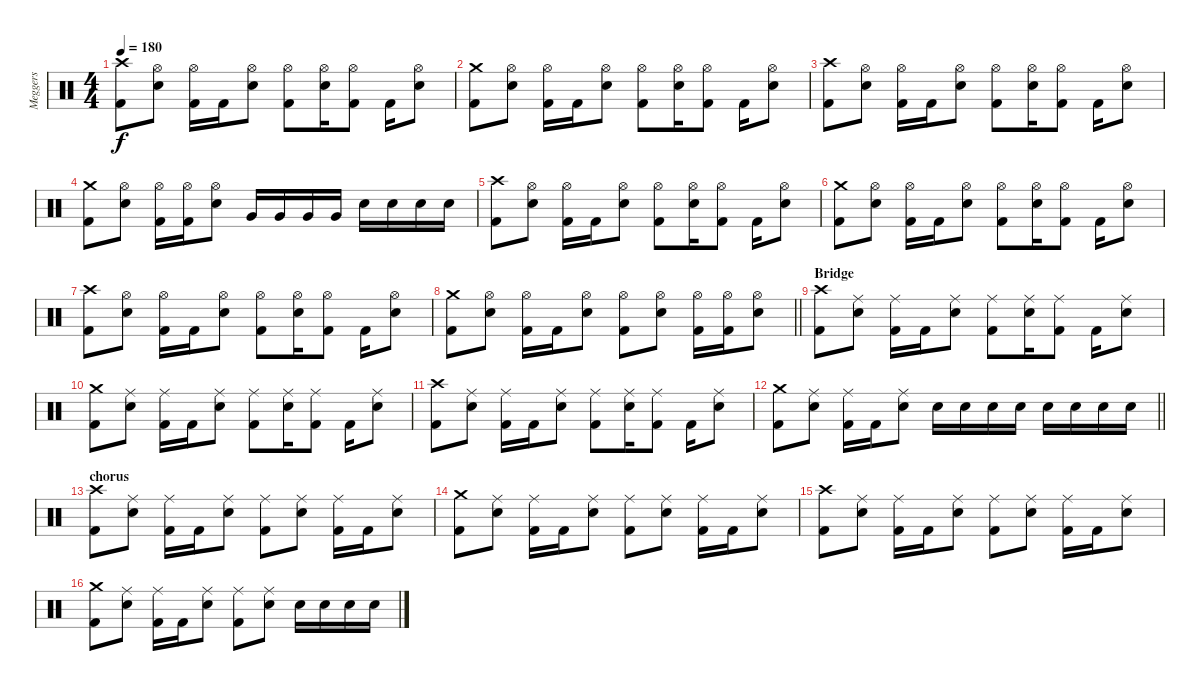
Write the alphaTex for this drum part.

\track ("Meggers" "Meggers") {instrument percussion}
\staff {score}
\articulation defaults
\ts (4 4)
\tempo 180
\clef neutral
\ks c
("Crash high (hit)" "Kick (hit) 2").8{dy f} ("Hi-Hat (open)" "Snare (hit) 2").8 ("Hi-Hat (open)" "Kick (hit) 2").16 "Kick (hit) 2".16 ("Hi-Hat (open)" "Snare (hit) 2").8 ("Hi-Hat (open)" "Kick (hit) 2").8 ("Hi-Hat (open)" "Snare (hit) 2").16 ("Hi-Hat (open)" "Kick (hit) 2").8 "Kick (hit) 2".16 ("Hi-Hat (open)" "Snare (hit) 2").8 |
("Crash medium (hit)" "Kick (hit) 2").8 ("Hi-Hat (open)" "Snare (hit) 2").8 ("Hi-Hat (open)" "Kick (hit) 2").16 "Kick (hit) 2".16 ("Hi-Hat (open)" "Snare (hit) 2").8 ("Hi-Hat (open)" "Kick (hit) 2").8 ("Hi-Hat (open)" "Snare (hit) 2").16 ("Hi-Hat (open)" "Kick (hit) 2").8 "Kick (hit) 2".16 ("Hi-Hat (open)" "Snare (hit) 2").8 |
("Crash high (hit)" "Kick (hit) 2").8 ("Hi-Hat (open)" "Snare (hit) 2").8 ("Hi-Hat (open)" "Kick (hit) 2").16 "Kick (hit) 2".16 ("Hi-Hat (open)" "Snare (hit) 2").8 ("Hi-Hat (open)" "Kick (hit) 2").8 ("Hi-Hat (open)" "Snare (hit) 2").16 ("Hi-Hat (open)" "Kick (hit) 2").8 "Kick (hit) 2".16 ("Hi-Hat (open)" "Snare (hit) 2").8 |
("Crash medium (hit)" "Kick (hit) 2").8 ("Hi-Hat (open)" "Snare (hit) 2").8 ("Hi-Hat (open)" "Kick (hit) 2").16 ("Hi-Hat (open)" "Kick (hit) 2").16 ("Hi-Hat (open)" "Snare (hit) 2").8 "Very Low Tom (hit)".16 "Very Low Tom (hit)".16 "Very Low Tom (hit)".16 "Very Low Tom (hit)".16 "Snare (hit) 2".16 "Snare (hit) 2".16 "Snare (hit) 2".16 "Snare (hit) 2".16 |
("Crash high (hit)" "Kick (hit) 2").8 ("Hi-Hat (open)" "Snare (hit) 2").8 ("Hi-Hat (open)" "Kick (hit) 2").16 "Kick (hit) 2".16 ("Hi-Hat (open)" "Snare (hit) 2").8 ("Hi-Hat (open)" "Kick (hit) 2").8 ("Hi-Hat (open)" "Snare (hit) 2").16 ("Hi-Hat (open)" "Kick (hit) 2").8 "Kick (hit) 2".16 ("Hi-Hat (open)" "Snare (hit) 2").8 |
("Crash medium (hit)" "Kick (hit) 2").8 ("Hi-Hat (open)" "Snare (hit) 2").8 ("Hi-Hat (open)" "Kick (hit) 2").16 "Kick (hit) 2".16 ("Hi-Hat (open)" "Snare (hit) 2").8 ("Hi-Hat (open)" "Kick (hit) 2").8 ("Hi-Hat (open)" "Snare (hit) 2").16 ("Hi-Hat (open)" "Kick (hit) 2").8 "Kick (hit) 2".16 ("Hi-Hat (open)" "Snare (hit) 2").8 |
("Crash high (hit)" "Kick (hit) 2").8 ("Hi-Hat (open)" "Snare (hit) 2").8 ("Hi-Hat (open)" "Kick (hit) 2").16 "Kick (hit) 2".16 ("Hi-Hat (open)" "Snare (hit) 2").8 ("Hi-Hat (open)" "Kick (hit) 2").8 ("Hi-Hat (open)" "Snare (hit) 2").16 ("Hi-Hat (open)" "Kick (hit) 2").8 "Kick (hit) 2".16 ("Hi-Hat (open)" "Snare (hit) 2").8 |
\barLineRight lightlight
("Crash medium (hit)" "Kick (hit) 2").8 ("Hi-Hat (open)" "Snare (hit) 2").8 ("Hi-Hat (open)" "Kick (hit) 2").16 "Kick (hit) 2".16 ("Hi-Hat (open)" "Snare (hit) 2").8 ("Hi-Hat (open)" "Kick (hit) 2").8 ("Hi-Hat (open)" "Snare (hit) 2").8 ("Hi-Hat (open)" "Kick (hit) 2").16 ("Hi-Hat (open)" "Kick (hit) 2").16 ("Hi-Hat (open)" "Snare (hit) 2").8 |
\section ("" "Bridge")
("Crash high (hit)" "Kick (hit) 2").8 ("Ride (middle)" "Snare (hit) 2").8 ("Ride (middle)" "Kick (hit) 2").16 "Kick (hit) 2".16 ("Ride (middle)" "Snare (hit) 2").8 ("Ride (middle)" "Kick (hit) 2").8 ("Ride (middle)" "Snare (hit) 2").16 ("Ride (middle)" "Kick (hit) 2").8 "Kick (hit) 2".16 ("Ride (middle)" "Snare (hit) 2").8 |
("Crash medium (hit)" "Kick (hit) 2").8 ("Ride (middle)" "Snare (hit) 2").8 ("Ride (middle)" "Kick (hit) 2").16 "Kick (hit) 2".16 ("Ride (middle)" "Snare (hit) 2").8 ("Ride (middle)" "Kick (hit) 2").8 ("Ride (middle)" "Snare (hit) 2").16 ("Ride (middle)" "Kick (hit) 2").8 "Kick (hit) 2".16 ("Ride (middle)" "Snare (hit) 2").8 |
("Crash high (hit)" "Kick (hit) 2").8 ("Ride (middle)" "Snare (hit) 2").8 ("Ride (middle)" "Kick (hit) 2").16 "Kick (hit) 2".16 ("Ride (middle)" "Snare (hit) 2").8 ("Ride (middle)" "Kick (hit) 2").8 ("Ride (middle)" "Snare (hit) 2").16 ("Ride (middle)" "Kick (hit) 2").8 "Kick (hit) 2".16 ("Ride (middle)" "Snare (hit) 2").8 |
\barLineRight lightlight
("Crash medium (hit)" "Kick (hit) 2").8 ("Ride (middle)" "Snare (hit) 2").8 ("Ride (middle)" "Kick (hit) 2").16 "Kick (hit) 2".16 ("Ride (middle)" "Snare (hit) 2").8 "Snare (hit) 2".16 "Snare (hit) 2".16 "Snare (hit) 2".16 "Snare (hit) 2".16 "Snare (hit) 2".16 "Snare (hit) 2".16 "Snare (hit) 2".16 "Snare (hit) 2".16 |
\section ("" "chorus")
("Crash high (hit)" "Kick (hit) 2").8 ("Ride (middle)" "Snare (hit) 2").8 ("Ride (middle)" "Kick (hit) 2").16 "Kick (hit) 2".16 ("Ride (middle)" "Snare (hit) 2").8 ("Ride (middle)" "Kick (hit) 2").8 ("Ride (middle)" "Snare (hit) 2").8 ("Ride (middle)" "Kick (hit) 2").16 "Kick (hit) 2".16 ("Ride (middle)" "Snare (hit) 2").8 |
("Crash medium (hit)" "Kick (hit) 2").8 ("Ride (middle)" "Snare (hit) 2").8 ("Ride (middle)" "Kick (hit) 2").16 "Kick (hit) 2".16 ("Ride (middle)" "Snare (hit) 2").8 ("Ride (middle)" "Kick (hit) 2").8 ("Ride (middle)" "Snare (hit) 2").8 ("Ride (middle)" "Kick (hit) 2").16 "Kick (hit) 2".16 ("Ride (middle)" "Snare (hit) 2").8 |
("Crash high (hit)" "Kick (hit) 2").8 ("Ride (middle)" "Snare (hit) 2").8 ("Ride (middle)" "Kick (hit) 2").16 "Kick (hit) 2".16 ("Ride (middle)" "Snare (hit) 2").8 ("Ride (middle)" "Kick (hit) 2").8 ("Ride (middle)" "Snare (hit) 2").8 ("Ride (middle)" "Kick (hit) 2").16 "Kick (hit) 2".16 ("Ride (middle)" "Snare (hit) 2").8 |
("Crash medium (hit)" "Kick (hit) 2").8 ("Ride (middle)" "Snare (hit) 2").8 ("Ride (middle)" "Kick (hit) 2").16 "Kick (hit) 2".16 ("Ride (middle)" "Snare (hit) 2").8 ("Ride (middle)" "Kick (hit) 2").8 ("Ride (middle)" "Snare (hit) 2").8 "Snare (hit) 2".16 "Snare (hit) 2".16 "Snare (hit) 2".16 "Snare (hit) 2".16
